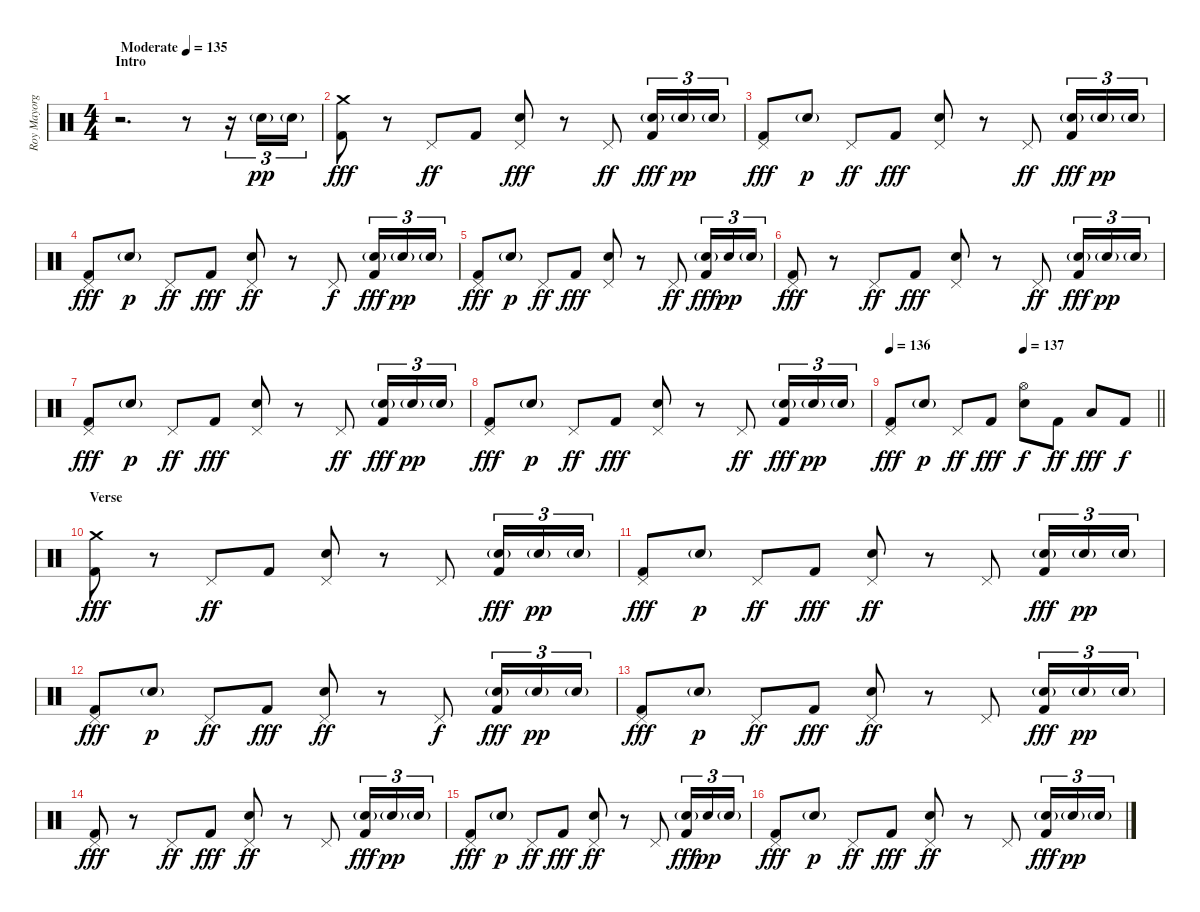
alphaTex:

\track ("Roy Mayorga (Drums)" "Roy Mayorg") {instrument percussion}
\staff {score}
\articulation defaults
\ts (4 4)
\section ("" "Intro")
\tempo (135 "Moderate")
\clef neutral
\ks c
r.2{d dy pp} r.8 r.16{tu (3 2)} "Electric Snare (hit)"{g}.16{tu (3 2)} "Electric Snare (hit)"{g}.16{tu (3 2)} |
("Crash medium (hit)" "Kick (hit) 2").8{dy fff} r.8 "Pedal Hi-Hat (hit)".8{dy ff} "Kick (hit) 2".8 ("Pedal Hi-Hat (hit)" "Electric Snare (hit)").8{dy fff} r.8 "Pedal Hi-Hat (hit)".8{dy ff} ("Electric Snare (hit)"{g} "Kick (hit) 2").16{tu (3 2) dy fff} "Electric Snare (hit)"{g}.16{tu (3 2) dy pp} "Electric Snare (hit)"{g}.16{tu (3 2)} |
("Pedal Hi-Hat (hit)" "Kick (hit) 2").8{dy fff} "Electric Snare (hit)"{g}.8{dy p} "Pedal Hi-Hat (hit)".8{dy ff} "Kick (hit) 2".8{dy fff} ("Pedal Hi-Hat (hit)" "Electric Snare (hit)").8 r.8 "Pedal Hi-Hat (hit)".8{dy ff} ("Electric Snare (hit)"{g} "Kick (hit) 2").16{tu (3 2) dy fff} "Electric Snare (hit)"{g}.16{tu (3 2) dy pp} "Electric Snare (hit)"{g}.16{tu (3 2)} |
("Pedal Hi-Hat (hit)" "Kick (hit) 2").8{dy fff} "Electric Snare (hit)"{g}.8{dy p} "Pedal Hi-Hat (hit)".8{dy ff} "Kick (hit) 2".8{dy fff} ("Pedal Hi-Hat (hit)" "Electric Snare (hit)").8{dy ff} r.8 "Pedal Hi-Hat (hit)".8{dy f} ("Electric Snare (hit)"{g} "Kick (hit) 2").16{tu (3 2) dy fff} "Electric Snare (hit)"{g}.16{tu (3 2) dy pp} "Electric Snare (hit)"{g}.16{tu (3 2)} |
("Pedal Hi-Hat (hit)" "Kick (hit) 2").8{dy fff} "Electric Snare (hit)"{g}.8{dy p} "Pedal Hi-Hat (hit)".8{dy ff} "Kick (hit) 2".8{dy fff} ("Pedal Hi-Hat (hit)" "Electric Snare (hit)").8 r.8 "Pedal Hi-Hat (hit)".8{dy ff} ("Electric Snare (hit)"{g} "Kick (hit) 2").16{tu (3 2) dy fff} "Electric Snare (hit)".16{tu (3 2) dy pp} "Electric Snare (hit)"{g}.16{tu (3 2)} |
("Pedal Hi-Hat (hit)" "Kick (hit) 2").8{dy fff} r.8 "Pedal Hi-Hat (hit)".8{dy ff} "Kick (hit) 2".8{dy fff} ("Pedal Hi-Hat (hit)" "Electric Snare (hit)").8 r.8 "Pedal Hi-Hat (hit)".8{dy ff} ("Electric Snare (hit)"{g} "Kick (hit) 2").16{tu (3 2) dy fff} "Electric Snare (hit)"{g}.16{tu (3 2) dy pp} "Electric Snare (hit)"{g}.16{tu (3 2)} |
("Pedal Hi-Hat (hit)" "Kick (hit) 2").8{dy fff} "Electric Snare (hit)"{g}.8{dy p} "Pedal Hi-Hat (hit)".8{dy ff} "Kick (hit) 2".8{dy fff} ("Pedal Hi-Hat (hit)" "Electric Snare (hit)").8 r.8 "Pedal Hi-Hat (hit)".8{dy ff} ("Electric Snare (hit)"{g} "Kick (hit) 2").16{tu (3 2) dy fff} "Electric Snare (hit)"{g}.16{tu (3 2) dy pp} "Electric Snare (hit)"{g}.16{tu (3 2)} |
("Pedal Hi-Hat (hit)" "Kick (hit) 2").8{dy fff} "Electric Snare (hit)"{g}.8{dy p} "Pedal Hi-Hat (hit)".8{dy ff} "Kick (hit) 2".8{dy fff} ("Pedal Hi-Hat (hit)" "Electric Snare (hit)").8 r.8 "Pedal Hi-Hat (hit)".8{dy ff} ("Electric Snare (hit)"{g} "Kick (hit) 2").16{tu (3 2) dy fff} "Electric Snare (hit)"{g}.16{tu (3 2) dy pp} "Electric Snare (hit)"{g}.16{tu (3 2)} |
\tempo 136
\tempo (137 0.5)
\barLineRight lightlight
("Pedal Hi-Hat (hit)" "Kick (hit) 2").8{dy fff} "Electric Snare (hit)"{g}.8{dy p} "Pedal Hi-Hat (hit)".8{dy ff} "Kick (hit) 2".8{dy fff} ("Hi-Hat (open)" "Electric Snare (hit)").8{dy f} "Kick (hit) 2".8{dy ff} "Low Tom (hit)".8{dy fff} "Kick (hit) 2".8{dy f} |
\section ("" "Verse")
("Crash medium (hit)" "Kick (hit) 2").8{dy fff} r.8 "Pedal Hi-Hat (hit)".8{dy ff} "Kick (hit) 2".8 ("Pedal Hi-Hat (hit)" "Electric Snare (hit)").8 r.8 "Pedal Hi-Hat (hit)".8 ("Electric Snare (hit)"{g} "Kick (hit) 2").16{tu (3 2) dy fff} "Electric Snare (hit)"{g}.16{tu (3 2) dy pp} "Electric Snare (hit)"{g}.16{tu (3 2)} |
("Pedal Hi-Hat (hit)" "Kick (hit) 2").8{dy fff} "Electric Snare (hit)"{g}.8{dy p} "Pedal Hi-Hat (hit)".8{dy ff} "Kick (hit) 2".8{dy fff} ("Pedal Hi-Hat (hit)" "Electric Snare (hit)").8{dy ff} r.8 "Pedal Hi-Hat (hit)".8 ("Electric Snare (hit)"{g} "Kick (hit) 2").16{tu (3 2) dy fff} "Electric Snare (hit)"{g}.16{tu (3 2) dy pp} "Electric Snare (hit)"{g}.16{tu (3 2)} |
("Pedal Hi-Hat (hit)" "Kick (hit) 2").8{dy fff} "Electric Snare (hit)"{g}.8{dy p} "Pedal Hi-Hat (hit)".8{dy ff} "Kick (hit) 2".8{dy fff} ("Pedal Hi-Hat (hit)" "Electric Snare (hit)").8{dy ff} r.8 "Pedal Hi-Hat (hit)".8{dy f} ("Electric Snare (hit)"{g} "Kick (hit) 2").16{tu (3 2) dy fff} "Electric Snare (hit)"{g}.16{tu (3 2) dy pp} "Electric Snare (hit)"{g}.16{tu (3 2)} |
("Pedal Hi-Hat (hit)" "Kick (hit) 2").8{dy fff} "Electric Snare (hit)"{g}.8{dy p} "Pedal Hi-Hat (hit)".8{dy ff} "Kick (hit) 2".8{dy fff} ("Pedal Hi-Hat (hit)" "Electric Snare (hit)").8{dy ff} r.8 "Pedal Hi-Hat (hit)".8 ("Electric Snare (hit)"{g} "Kick (hit) 2").16{tu (3 2) dy fff} "Electric Snare (hit)"{g}.16{tu (3 2) dy pp} "Electric Snare (hit)"{g}.16{tu (3 2)} |
("Pedal Hi-Hat (hit)" "Kick (hit) 2").8{dy fff} r.8 "Pedal Hi-Hat (hit)".8{dy ff} "Kick (hit) 2".8{dy fff} ("Pedal Hi-Hat (hit)" "Electric Snare (hit)").8{dy ff} r.8 "Pedal Hi-Hat (hit)".8 ("Electric Snare (hit)"{g} "Kick (hit) 2").16{tu (3 2) dy fff} "Electric Snare (hit)"{g}.16{tu (3 2) dy pp} "Electric Snare (hit)"{g}.16{tu (3 2)} |
("Pedal Hi-Hat (hit)" "Kick (hit) 2").8{dy fff} "Electric Snare (hit)"{g}.8{dy p} "Pedal Hi-Hat (hit)".8{dy ff} "Kick (hit) 2".8{dy fff} ("Pedal Hi-Hat (hit)" "Electric Snare (hit)").8{dy ff} r.8 "Pedal Hi-Hat (hit)".8 ("Electric Snare (hit)"{g} "Kick (hit) 2").16{tu (3 2) dy fff} "Electric Snare (hit)".16{tu (3 2) dy pp} "Electric Snare (hit)"{g}.16{tu (3 2)} |
("Pedal Hi-Hat (hit)" "Kick (hit) 2").8{dy fff} "Electric Snare (hit)"{g}.8{dy p} "Pedal Hi-Hat (hit)".8{dy ff} "Kick (hit) 2".8{dy fff} ("Pedal Hi-Hat (hit)" "Electric Snare (hit)").8{dy ff} r.8 "Pedal Hi-Hat (hit)".8 ("Electric Snare (hit)"{g} "Kick (hit) 2").16{tu (3 2) dy fff} "Electric Snare (hit)"{g}.16{tu (3 2) dy pp} "Electric Snare (hit)"{g}.16{tu (3 2)}
